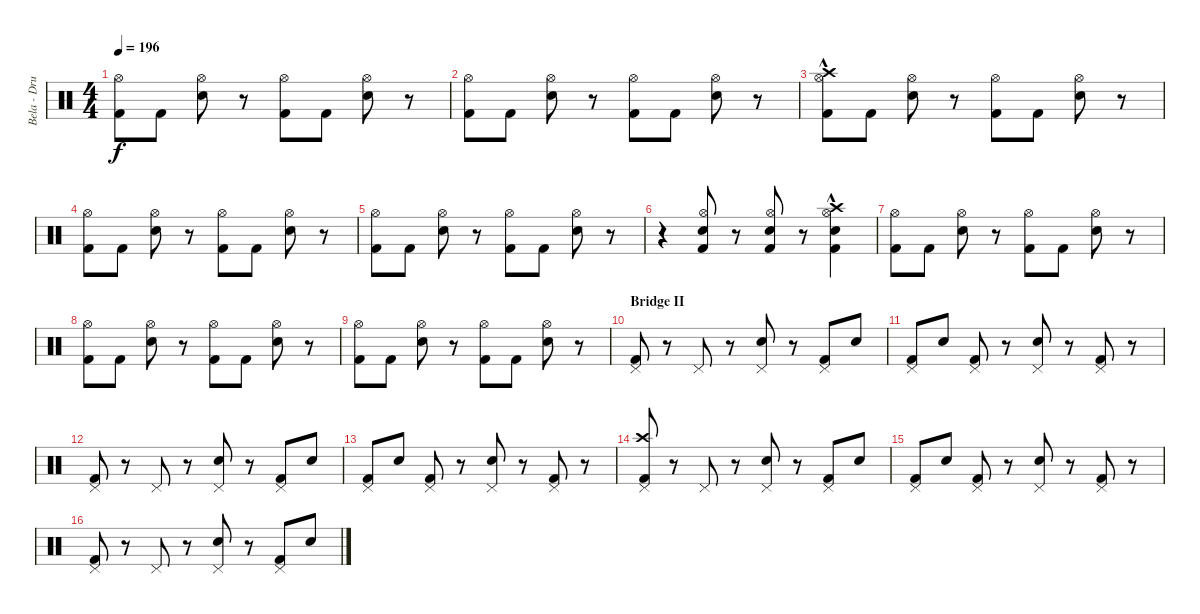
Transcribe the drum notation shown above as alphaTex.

\track ("Bela - Drums" "Bela - Dru") {instrument percussion}
\staff {score}
\articulation defaults
\ts (4 4)
\tempo 196
\clef neutral
\ks c
("Kick (hit) 2" "Hi-Hat (open)").8{dy f} "Kick (hit) 2".8 ("Electric Snare (hit)" "Hi-Hat (open)").8 r.8 ("Hi-Hat (open)" "Kick (hit) 2").8 "Kick (hit) 2".8 ("Electric Snare (hit)" "Hi-Hat (open)").8 r.8 |
("Hi-Hat (open)" "Kick (hit) 2").8 "Kick (hit) 2".8 ("Hi-Hat (open)" "Electric Snare (hit)").8 r.8 ("Hi-Hat (open)" "Kick (hit) 2").8 "Kick (hit) 2".8 ("Electric Snare (hit)" "Hi-Hat (open)").8 r.8 |
("Crash high (hit)"{hac} "Kick (hit) 2" "Hi-Hat (open)").8 "Kick (hit) 2".8 ("Electric Snare (hit)" "Hi-Hat (open)").8 r.8 ("Hi-Hat (open)" "Kick (hit) 2").8 "Kick (hit) 2".8 ("Electric Snare (hit)" "Hi-Hat (open)").8 r.8 |
("Kick (hit) 2" "Hi-Hat (open)").8 "Kick (hit) 2".8 ("Electric Snare (hit)" "Hi-Hat (open)").8 r.8 ("Hi-Hat (open)" "Kick (hit) 2").8 "Kick (hit) 2".8 ("Electric Snare (hit)" "Hi-Hat (open)").8 r.8 |
("Kick (hit) 2" "Hi-Hat (open)").8 "Kick (hit) 2".8 ("Electric Snare (hit)" "Hi-Hat (open)").8 r.8 ("Hi-Hat (open)" "Kick (hit) 2").8 "Kick (hit) 2".8 ("Electric Snare (hit)" "Hi-Hat (open)").8 r.8 |
r.4 ("Hi-Hat (open)" "Electric Snare (hit)" "Kick (hit) 2").8 r.8 ("Hi-Hat (open)" "Electric Snare (hit)" "Kick (hit) 2").8 r.8 ("Crash high (hit)"{hac} "Hi-Hat (open)" "Electric Snare (hit)" "Kick (hit) 2").4 |
("Kick (hit) 2" "Hi-Hat (open)").8 "Kick (hit) 2".8 ("Electric Snare (hit)" "Hi-Hat (open)").8 r.8 ("Hi-Hat (open)" "Kick (hit) 2").8 "Kick (hit) 2".8 ("Electric Snare (hit)" "Hi-Hat (open)").8 r.8 |
("Kick (hit) 2" "Hi-Hat (open)").8 "Kick (hit) 2".8 ("Electric Snare (hit)" "Hi-Hat (open)").8 r.8 ("Hi-Hat (open)" "Kick (hit) 2").8 "Kick (hit) 2".8 ("Electric Snare (hit)" "Hi-Hat (open)").8 r.8 |
("Kick (hit) 2" "Hi-Hat (open)").8 "Kick (hit) 2".8 ("Electric Snare (hit)" "Hi-Hat (open)").8 r.8 ("Hi-Hat (open)" "Kick (hit) 2").8 "Kick (hit) 2".8 ("Electric Snare (hit)" "Hi-Hat (open)").8 r.8 |
\section ("" "Bridge II")
("Kick (hit) 2" "Pedal Hi-Hat (hit)").8 r.8 "Pedal Hi-Hat (hit)".8 r.8 ("Electric Snare (hit)" "Pedal Hi-Hat (hit)").8 r.8 ("Pedal Hi-Hat (hit)" "Kick (hit) 2").8 "Electric Snare (hit)".8 |
("Pedal Hi-Hat (hit)" "Kick (hit) 2").8 "Electric Snare (hit)".8 ("Kick (hit) 2" "Pedal Hi-Hat (hit)").8 r.8 ("Pedal Hi-Hat (hit)" "Electric Snare (hit)").8 r.8 ("Kick (hit) 2" "Pedal Hi-Hat (hit)").8 r.8 |
("Pedal Hi-Hat (hit)" "Kick (hit) 2").8 r.8 "Pedal Hi-Hat (hit)".8 r.8 ("Pedal Hi-Hat (hit)" "Electric Snare (hit)").8 r.8 ("Kick (hit) 2" "Pedal Hi-Hat (hit)").8 "Electric Snare (hit)".8 |
("Pedal Hi-Hat (hit)" "Kick (hit) 2").8 "Electric Snare (hit)".8 ("Kick (hit) 2" "Pedal Hi-Hat (hit)").8 r.8 ("Pedal Hi-Hat (hit)" "Electric Snare (hit)").8 r.8 ("Kick (hit) 2" "Pedal Hi-Hat (hit)").8 r.8 |
("Pedal Hi-Hat (hit)" "Crash high (hit)" "Kick (hit) 2").8 r.8 "Pedal Hi-Hat (hit)".8 r.8 ("Electric Snare (hit)" "Pedal Hi-Hat (hit)").8 r.8 ("Kick (hit) 2" "Pedal Hi-Hat (hit)").8 "Electric Snare (hit)".8 |
("Pedal Hi-Hat (hit)" "Kick (hit) 2").8 "Electric Snare (hit)".8 ("Pedal Hi-Hat (hit)" "Kick (hit) 2").8 r.8 ("Electric Snare (hit)" "Pedal Hi-Hat (hit)").8 r.8 ("Pedal Hi-Hat (hit)" "Kick (hit) 2").8 r.8 |
("Kick (hit) 2" "Pedal Hi-Hat (hit)").8 r.8 "Pedal Hi-Hat (hit)".8 r.8 ("Pedal Hi-Hat (hit)" "Electric Snare (hit)").8 r.8 ("Pedal Hi-Hat (hit)" "Kick (hit) 2").8 "Electric Snare (hit)".8
